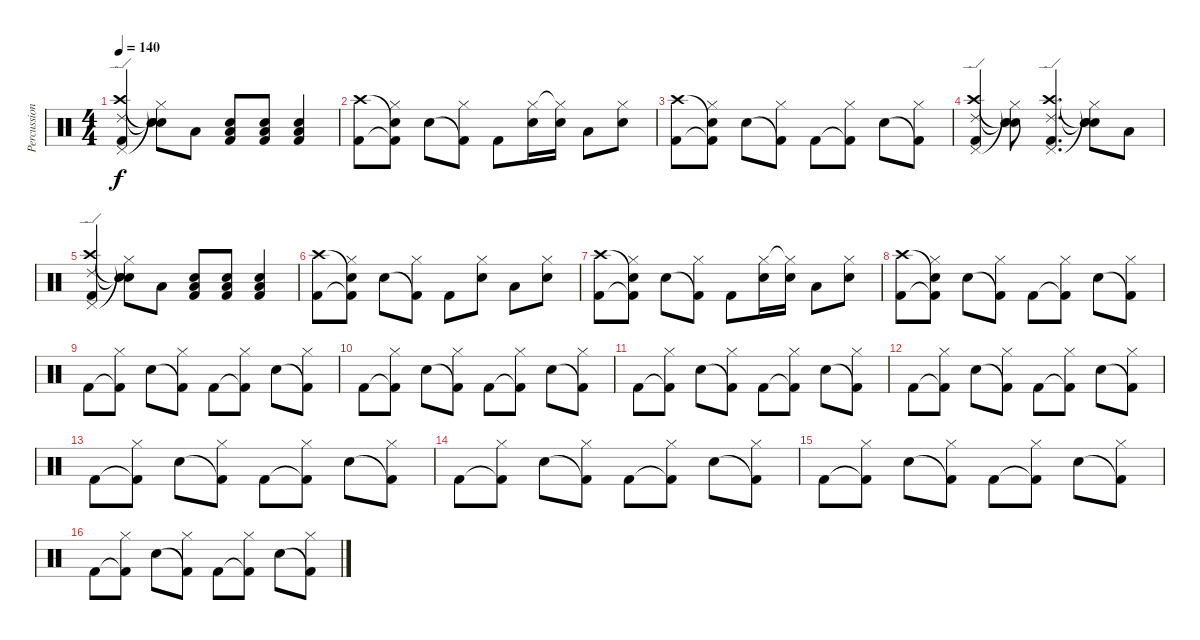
\track ("Percussion" "Percussion") {instrument percussion}
\staff {score}
\articulation defaults
\ts (4 4)
\tempo 140
\clef neutral
\ks c
("Kick (hit) 2" "Crash high (hit)" "Ride (edge) 2" "Pedal Hi-Hat (hit)").4{dy f} ("Snare (hit) 2" "Snare (hit)"{t} "Snare (hit)"{t} "Hi-Hat (closed)"{t}).8 "Low Tom (hit)".8 ("Low Tom (hit)" "Snare (hit) 2" "Kick (hit) 2").8 ("Low Tom (hit)" "Snare (hit) 2" "Kick (hit) 2").8 ("Low Tom (hit)" "Snare (hit) 2" "Kick (hit) 2").4 |
("Kick (hit) 2" "Crash high (hit)").8 ("Kick (hit) 2"{t} "Snare (hit)"{t} "Hi-Hat (closed)").8 "Snare (hit) 2".8 ("Kick (hit) 2"{t} "Hi-Hat (closed)").8 "Kick (hit) 2".8 ("Snare (hit) 2" "Hi-Hat (closed)").16 ("Snare (hit) 2" "Hi-Hat (closed)"{t}).16 "Low Tom (hit)".8 ("Snare (hit) 2" "Hi-Hat (closed)").8 |
("Kick (hit) 2" "Crash high (hit)").8 ("Kick (hit) 2"{t} "Snare (hit)"{t} "Hi-Hat (closed)").8 "Snare (hit) 2".8 ("Kick (hit) 2"{t} "Hi-Hat (closed)").8 "Kick (hit) 2".8 ("Kick (hit) 2"{t} "Hi-Hat (closed)").8 "Snare (hit) 2".8 ("Kick (hit) 2"{t} "Hi-Hat (closed)").8 |
("Kick (hit) 2" "Crash high (hit)" "Ride (edge) 2" "Pedal Hi-Hat (hit)").4 ("Snare (hit) 2" "Snare (hit)"{t} "Snare (hit)"{t} "Hi-Hat (closed)"{t}).8 ("Kick (hit) 2" "Crash high (hit)" "Ride (edge) 2" "Pedal Hi-Hat (hit)").4{d} ("Snare (hit) 2" "Snare (hit)"{t} "Snare (hit)"{t} "Hi-Hat (closed)"{t}).8 "Low Tom (hit)".8 |
("Kick (hit) 2" "Crash high (hit)" "Ride (edge) 2" "Pedal Hi-Hat (hit)").4 ("Snare (hit) 2" "Snare (hit)"{t} "Snare (hit)"{t} "Hi-Hat (closed)"{t}).8 "Low Tom (hit)".8 ("Low Tom (hit)" "Snare (hit) 2" "Kick (hit) 2").8 ("Low Tom (hit)" "Snare (hit) 2" "Kick (hit) 2").8 ("Low Tom (hit)" "Snare (hit) 2" "Kick (hit) 2").4 |
("Kick (hit) 2" "Crash high (hit)").8 ("Kick (hit) 2"{t} "Snare (hit)"{t} "Hi-Hat (closed)").8 "Snare (hit) 2".8 ("Kick (hit) 2"{t} "Hi-Hat (closed)").8 "Kick (hit) 2".8 ("Snare (hit) 2" "Hi-Hat (closed)").8 "Low Tom (hit)".8 ("Snare (hit) 2" "Hi-Hat (closed)").8 |
("Kick (hit) 2" "Crash high (hit)").8 ("Kick (hit) 2"{t} "Snare (hit)"{t} "Hi-Hat (closed)").8 "Snare (hit) 2".8 ("Kick (hit) 2"{t} "Hi-Hat (closed)").8 "Kick (hit) 2".8 ("Snare (hit) 2" "Hi-Hat (closed)").16 ("Snare (hit) 2" "Hi-Hat (closed)"{t}).16 "Low Tom (hit)".8 ("Snare (hit) 2" "Hi-Hat (closed)").8 |
("Kick (hit) 2" "Crash high (hit)").8 ("Kick (hit) 2"{t} "Snare (hit)"{t} "Hi-Hat (closed)").8 "Snare (hit) 2".8 ("Kick (hit) 2"{t} "Hi-Hat (closed)").8 "Kick (hit) 2".8 ("Kick (hit) 2"{t} "Hi-Hat (closed)").8 "Snare (hit) 2".8 ("Kick (hit) 2"{t} "Hi-Hat (closed)").8 |
"Kick (hit) 2".8 ("Kick (hit) 2"{t} "Hi-Hat (closed)").8 "Snare (hit) 2".8 ("Kick (hit) 2"{t} "Hi-Hat (closed)").8 "Kick (hit) 2".8 ("Kick (hit) 2"{t} "Hi-Hat (closed)").8 "Snare (hit) 2".8 ("Kick (hit) 2"{t} "Hi-Hat (closed)").8 |
"Kick (hit) 2".8 ("Kick (hit) 2"{t} "Hi-Hat (closed)").8 "Snare (hit) 2".8 ("Kick (hit) 2"{t} "Hi-Hat (closed)").8 "Kick (hit) 2".8 ("Kick (hit) 2"{t} "Hi-Hat (closed)").8 "Snare (hit) 2".8 ("Kick (hit) 2"{t} "Hi-Hat (closed)").8 |
"Kick (hit) 2".8 ("Kick (hit) 2"{t} "Hi-Hat (closed)").8 "Snare (hit) 2".8 ("Kick (hit) 2"{t} "Hi-Hat (closed)").8 "Kick (hit) 2".8 ("Kick (hit) 2"{t} "Hi-Hat (closed)").8 "Snare (hit) 2".8 ("Kick (hit) 2"{t} "Hi-Hat (closed)").8 |
"Kick (hit) 2".8 ("Kick (hit) 2"{t} "Hi-Hat (closed)").8 "Snare (hit) 2".8 ("Kick (hit) 2"{t} "Hi-Hat (closed)").8 "Kick (hit) 2".8 ("Kick (hit) 2"{t} "Hi-Hat (closed)").8 "Snare (hit) 2".8 ("Kick (hit) 2"{t} "Hi-Hat (closed)").8 |
"Kick (hit) 2".8 ("Kick (hit) 2"{t} "Hi-Hat (closed)").8 "Snare (hit) 2".8 ("Kick (hit) 2"{t} "Hi-Hat (closed)").8 "Kick (hit) 2".8 ("Kick (hit) 2"{t} "Hi-Hat (closed)").8 "Snare (hit) 2".8 ("Kick (hit) 2"{t} "Hi-Hat (closed)").8 |
"Kick (hit) 2".8 ("Kick (hit) 2"{t} "Hi-Hat (closed)").8 "Snare (hit) 2".8 ("Kick (hit) 2"{t} "Hi-Hat (closed)").8 "Kick (hit) 2".8 ("Kick (hit) 2"{t} "Hi-Hat (closed)").8 "Snare (hit) 2".8 ("Kick (hit) 2"{t} "Hi-Hat (closed)").8 |
"Kick (hit) 2".8 ("Kick (hit) 2"{t} "Hi-Hat (closed)").8 "Snare (hit) 2".8 ("Kick (hit) 2"{t} "Hi-Hat (closed)").8 "Kick (hit) 2".8 ("Kick (hit) 2"{t} "Hi-Hat (closed)").8 "Snare (hit) 2".8 ("Kick (hit) 2"{t} "Hi-Hat (closed)").8 |
"Kick (hit) 2".8 ("Kick (hit) 2"{t} "Hi-Hat (closed)").8 "Snare (hit) 2".8 ("Kick (hit) 2"{t} "Hi-Hat (closed)").8 "Kick (hit) 2".8 ("Kick (hit) 2"{t} "Hi-Hat (closed)").8 "Snare (hit) 2".8 ("Kick (hit) 2"{t} "Hi-Hat (closed)").8
